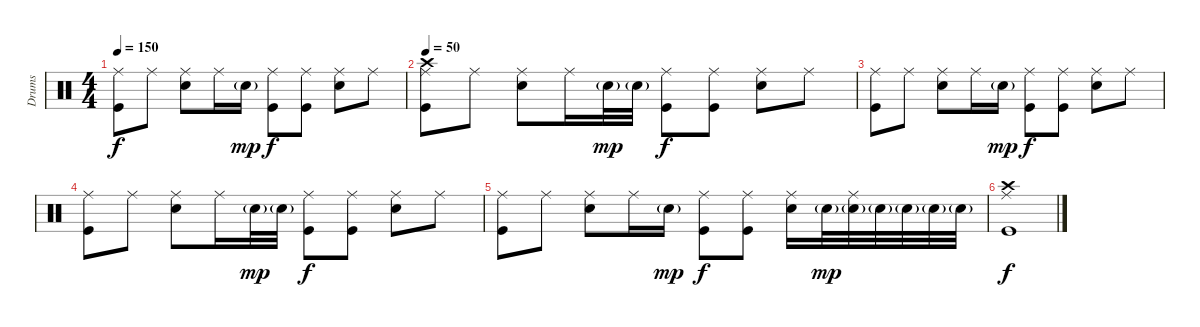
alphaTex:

\track ("Drums" "Drums") {instrument percussion}
\staff {score}
\articulation defaults
\ts (4 4)
\tempo 150
\clef neutral
\ks c
("Ride (middle)" "Kick (hit)").8{dy f} "Ride (middle)".8 ("Ride (middle)" "Snare (hit) 2").8 "Ride (middle)".16 "Snare (hit) 2"{g}.16{dy mp} ("Ride (middle)" "Kick (hit)").8{dy f} ("Ride (middle)" "Kick (hit)").8 ("Ride (middle)" "Snare (hit) 2").8 "Ride (middle)".8 |
\tempo 50
("Crash high (hit)" "Ride (middle)" "Kick (hit)").8 "Ride (middle)".8 ("Ride (middle)" "Snare (hit) 2").8 "Ride (middle)".16 "Snare (hit) 2"{g}.32{dy mp} "Snare (hit) 2"{g}.32 ("Ride (middle)" "Kick (hit)").8{dy f} ("Ride (middle)" "Kick (hit)").8 ("Ride (middle)" "Snare (hit) 2").8 "Ride (middle)".8 |
("Ride (middle)" "Kick (hit)").8 "Ride (middle)".8 ("Ride (middle)" "Snare (hit) 2").8 "Ride (middle)".16 "Snare (hit) 2"{g}.16{dy mp} ("Ride (middle)" "Kick (hit)").8{dy f} ("Ride (middle)" "Kick (hit)").8 ("Ride (middle)" "Snare (hit) 2").8 "Ride (middle)".8 |
("Ride (middle)" "Kick (hit)").8 "Ride (middle)".8 ("Ride (middle)" "Snare (hit) 2").8 "Ride (middle)".16 "Snare (hit) 2"{g}.32{dy mp} "Snare (hit) 2"{g}.32 ("Ride (middle)" "Kick (hit)").8{dy f} ("Ride (middle)" "Kick (hit)").8 ("Ride (middle)" "Snare (hit) 2").8 "Ride (middle)".8 |
("Ride (middle)" "Kick (hit)").8 "Ride (middle)".8 ("Ride (middle)" "Snare (hit) 2").8 "Ride (middle)".16 "Snare (hit) 2"{g}.16{dy mp} ("Ride (middle)" "Kick (hit)").8{dy f} ("Ride (middle)" "Kick (hit)").8 ("Ride (middle)" "Snare (hit) 2").16 "Snare (hit) 2"{g}.32{dy mp} ("Ride (middle)" "Snare (hit) 2"{g}).32 "Snare (hit) 2"{g}.32 "Snare (hit) 2"{g}.32 "Snare (hit) 2"{g}.32 "Snare (hit) 2"{g}.32 |
("Crash high (hit)" "Ride (middle)" "Kick (hit)").1{dy f}
